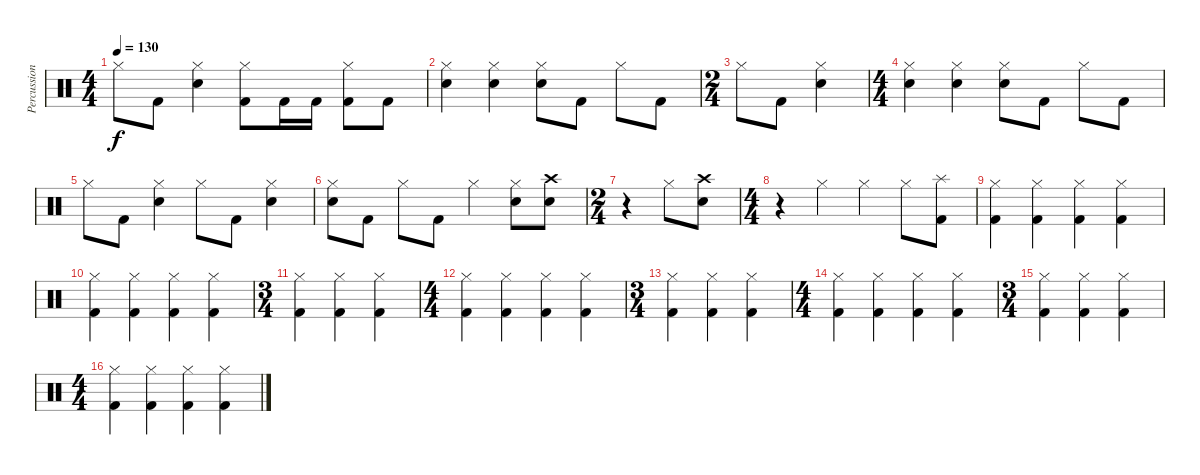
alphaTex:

\track ("Percussion" "Percussion") {instrument percussion}
\staff {score}
\articulation defaults
\ts (4 4)
\tempo 130
\clef neutral
\ks c "Hi-Hat (closed)".8{dy f} "Kick (hit) 2".8
("Snare (hit) 2" "Hi-Hat (closed)").4 ("Kick (hit) 2" "Hi-Hat (closed)").8 "Kick (hit) 2".16 "Kick (hit) 2".16 ("Kick (hit) 2" "Hi-Hat (closed)").8 "Kick (hit) 2".8 |
("Snare (hit) 2" "Hi-Hat (closed)").4 ("Snare (hit) 2" "Hi-Hat (closed)").4 ("Snare (hit) 2" "Hi-Hat (closed)").8 "Kick (hit) 2".8 "Hi-Hat (closed)".8 "Kick (hit) 2".8 |
\ts (2 4)
"Hi-Hat (closed)".8 "Kick (hit) 2".8 ("Snare (hit) 2" "Hi-Hat (closed)").4 |
\ts (4 4)
("Snare (hit) 2" "Hi-Hat (closed)").4 ("Snare (hit) 2" "Hi-Hat (closed)").4 ("Snare (hit) 2" "Hi-Hat (closed)").8 "Kick (hit) 2".8 "Hi-Hat (closed)".8 "Kick (hit) 2".8 |
"Hi-Hat (closed)".8 "Kick (hit) 2".8 ("Snare (hit) 2" "Hi-Hat (closed)").4 "Hi-Hat (closed)".8 "Kick (hit) 2".8 ("Snare (hit) 2" "Hi-Hat (closed)").4 |
("Snare (hit) 2" "Hi-Hat (closed)").8 "Kick (hit) 2".8 "Hi-Hat (closed)".8 "Kick (hit) 2".8 "Hi-Hat (closed)".4 ("Snare (hit) 2" "Hi-Hat (closed)").8 ("Snare (hit) 2" "Crash high (hit)").8 |
\ts (2 4)
r.4 "Hi-Hat (closed)".8 ("Snare (hit) 2" "Crash high (hit)").8 |
\ts (4 4)
r.4 "Hi-Hat (closed)".4 "Hi-Hat (closed)".4 "Hi-Hat (closed)".8 ("Kick (hit) 2" "Splash (hit)").8 |
("Kick (hit) 2" "Hi-Hat (closed)").4 ("Kick (hit) 2" "Hi-Hat (closed)").4 ("Kick (hit) 2" "Hi-Hat (closed)").4 ("Kick (hit) 2" "Hi-Hat (closed)").4 |
("Kick (hit) 2" "Hi-Hat (closed)").4 ("Kick (hit) 2" "Hi-Hat (closed)").4 ("Kick (hit) 2" "Hi-Hat (closed)").4 ("Kick (hit) 2" "Hi-Hat (closed)").4 |
\ts (3 4)
("Kick (hit) 2" "Hi-Hat (closed)").4 ("Kick (hit) 2" "Hi-Hat (closed)").4 ("Kick (hit) 2" "Hi-Hat (closed)").4 |
\ts (4 4)
("Kick (hit) 2" "Hi-Hat (closed)").4 ("Kick (hit) 2" "Hi-Hat (closed)").4 ("Kick (hit) 2" "Hi-Hat (closed)").4 ("Kick (hit) 2" "Hi-Hat (closed)").4 |
\ts (3 4)
("Kick (hit) 2" "Hi-Hat (closed)").4 ("Kick (hit) 2" "Hi-Hat (closed)").4 ("Kick (hit) 2" "Hi-Hat (closed)").4 |
\ts (4 4)
("Kick (hit) 2" "Hi-Hat (closed)").4 ("Kick (hit) 2" "Hi-Hat (closed)").4 ("Kick (hit) 2" "Hi-Hat (closed)").4 ("Kick (hit) 2" "Hi-Hat (closed)").4 |
\ts (3 4)
("Kick (hit) 2" "Hi-Hat (closed)").4 ("Kick (hit) 2" "Hi-Hat (closed)").4 ("Kick (hit) 2" "Hi-Hat (closed)").4 |
\ts (4 4)
("Kick (hit) 2" "Hi-Hat (closed)").4 ("Kick (hit) 2" "Hi-Hat (closed)").4 ("Kick (hit) 2" "Hi-Hat (closed)").4 ("Kick (hit) 2" "Hi-Hat (closed)").4
